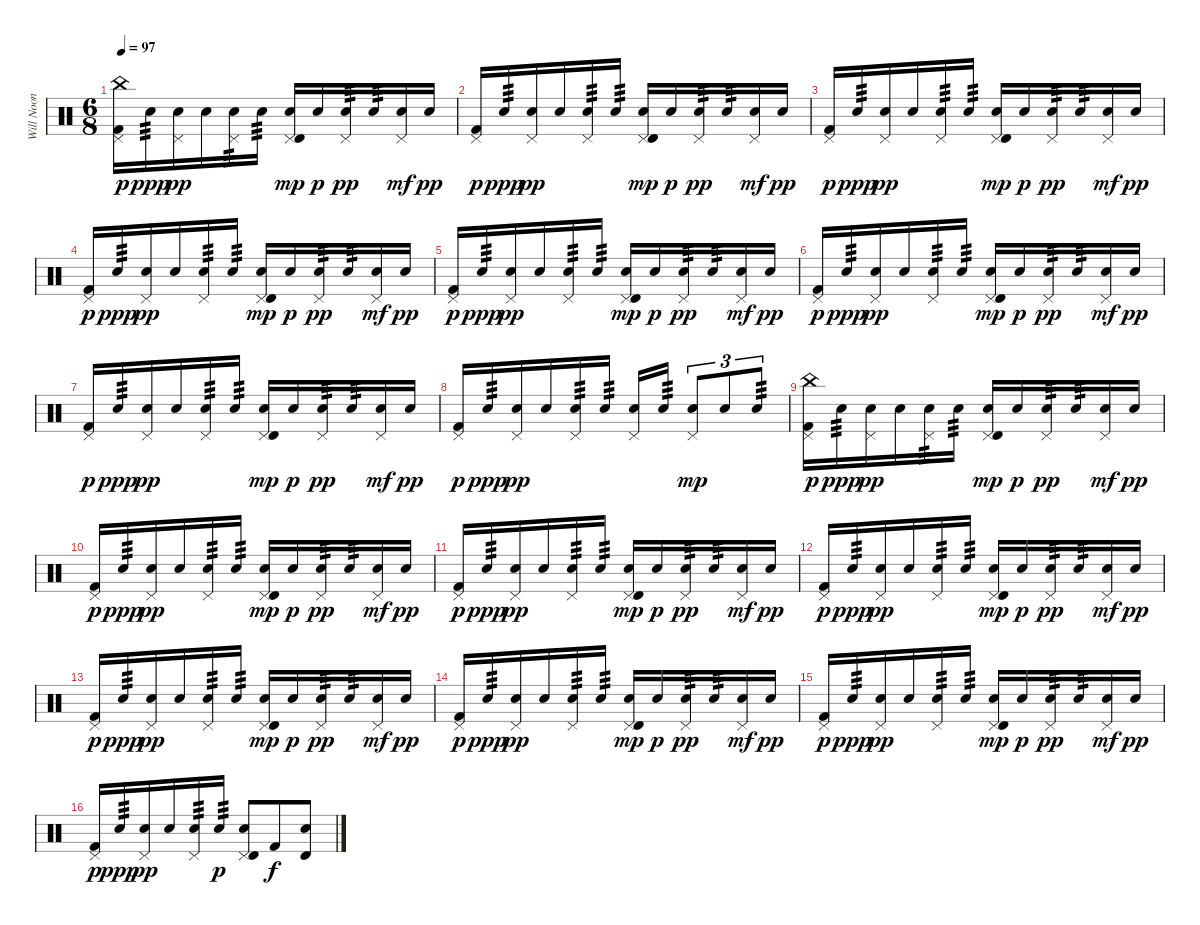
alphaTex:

\track ("Will Noon" "Will Noon") {instrument percussion}
\staff {score}
\articulation defaults
\ts (6 8)
\tempo 97
\clef neutral
\ks c
("China (hit)" "Pedal Hi-Hat (hit)" "Kick (hit) 2").16{dy p} "Electric Snare (hit)".16{tp 3 dy ppp} ("Pedal Hi-Hat (hit)" "Electric Snare (hit)").16{dy pp} "Electric Snare (hit)".16 ("Pedal Hi-Hat (hit)" "Electric Snare (hit)").16{tp 3} "Electric Snare (hit)".16{tp 3} ("Pedal Hi-Hat (hit)" "Timbale high (hit)" "Electric Snare (hit)").16{dy mp} "Electric Snare (hit)".16{dy p} ("Pedal Hi-Hat (hit)" "Electric Snare (hit)").16{tp 3 dy pp} "Electric Snare (hit)".16{tp 3} ("Pedal Hi-Hat (hit)" "Electric Snare (hit)").16{dy mf} "Electric Snare (hit)".16{dy pp} |
("Pedal Hi-Hat (hit)" "Kick (hit) 2").16{dy p} "Electric Snare (hit)".16{tp 3 dy ppp} ("Pedal Hi-Hat (hit)" "Electric Snare (hit)").16{dy pp} "Electric Snare (hit)".16 ("Pedal Hi-Hat (hit)" "Electric Snare (hit)").16{tp 3} "Electric Snare (hit)".16{tp 3} ("Pedal Hi-Hat (hit)" "Timbale high (hit)" "Electric Snare (hit)").16{dy mp} "Electric Snare (hit)".16{dy p} ("Pedal Hi-Hat (hit)" "Electric Snare (hit)").16{tp 3 dy pp} "Electric Snare (hit)".16{tp 3} ("Pedal Hi-Hat (hit)" "Electric Snare (hit)").16{dy mf} "Electric Snare (hit)".16{dy pp} |
("Pedal Hi-Hat (hit)" "Kick (hit) 2").16{dy p} "Electric Snare (hit)".16{tp 3 dy ppp} ("Pedal Hi-Hat (hit)" "Electric Snare (hit)").16{dy pp} "Electric Snare (hit)".16 ("Pedal Hi-Hat (hit)" "Electric Snare (hit)").16{tp 3} "Electric Snare (hit)".16{tp 3} ("Pedal Hi-Hat (hit)" "Timbale high (hit)" "Electric Snare (hit)").16{dy mp} "Electric Snare (hit)".16{dy p} ("Pedal Hi-Hat (hit)" "Electric Snare (hit)").16{tp 3 dy pp} "Electric Snare (hit)".16{tp 3} ("Pedal Hi-Hat (hit)" "Electric Snare (hit)").16{dy mf} "Electric Snare (hit)".16{dy pp} |
("Pedal Hi-Hat (hit)" "Kick (hit) 2").16{dy p} "Electric Snare (hit)".16{tp 3 dy ppp} ("Pedal Hi-Hat (hit)" "Electric Snare (hit)").16{dy pp} "Electric Snare (hit)".16 ("Pedal Hi-Hat (hit)" "Electric Snare (hit)").16{tp 3} "Electric Snare (hit)".16{tp 3} ("Pedal Hi-Hat (hit)" "Timbale high (hit)" "Electric Snare (hit)").16{dy mp} "Electric Snare (hit)".16{dy p} ("Pedal Hi-Hat (hit)" "Electric Snare (hit)").16{tp 3 dy pp} "Electric Snare (hit)".16{tp 3} ("Pedal Hi-Hat (hit)" "Electric Snare (hit)").16{dy mf} "Electric Snare (hit)".16{dy pp} |
("Pedal Hi-Hat (hit)" "Kick (hit) 2").16{dy p} "Electric Snare (hit)".16{tp 3 dy ppp} ("Pedal Hi-Hat (hit)" "Electric Snare (hit)").16{dy pp} "Electric Snare (hit)".16 ("Pedal Hi-Hat (hit)" "Electric Snare (hit)").16{tp 3} "Electric Snare (hit)".16{tp 3} ("Pedal Hi-Hat (hit)" "Timbale high (hit)" "Electric Snare (hit)").16{dy mp} "Electric Snare (hit)".16{dy p} ("Pedal Hi-Hat (hit)" "Electric Snare (hit)").16{tp 3 dy pp} "Electric Snare (hit)".16{tp 3} ("Pedal Hi-Hat (hit)" "Electric Snare (hit)").16{dy mf} "Electric Snare (hit)".16{dy pp} |
("Pedal Hi-Hat (hit)" "Kick (hit) 2").16{dy p} "Electric Snare (hit)".16{tp 3 dy ppp} ("Pedal Hi-Hat (hit)" "Electric Snare (hit)").16{dy pp} "Electric Snare (hit)".16 ("Pedal Hi-Hat (hit)" "Electric Snare (hit)").16{tp 3} "Electric Snare (hit)".16{tp 3} ("Pedal Hi-Hat (hit)" "Timbale high (hit)" "Electric Snare (hit)").16{dy mp} "Electric Snare (hit)".16{dy p} ("Pedal Hi-Hat (hit)" "Electric Snare (hit)").16{tp 3 dy pp} "Electric Snare (hit)".16{tp 3} ("Pedal Hi-Hat (hit)" "Electric Snare (hit)").16{dy mf} "Electric Snare (hit)".16{dy pp} |
("Pedal Hi-Hat (hit)" "Kick (hit) 2").16{dy p} "Electric Snare (hit)".16{tp 3 dy ppp} ("Pedal Hi-Hat (hit)" "Electric Snare (hit)").16{dy pp} "Electric Snare (hit)".16 ("Pedal Hi-Hat (hit)" "Electric Snare (hit)").16{tp 3} "Electric Snare (hit)".16{tp 3} ("Pedal Hi-Hat (hit)" "Timbale high (hit)" "Electric Snare (hit)").16{dy mp} "Electric Snare (hit)".16{dy p} ("Pedal Hi-Hat (hit)" "Electric Snare (hit)").16{tp 3 dy pp} "Electric Snare (hit)".16{tp 3} ("Pedal Hi-Hat (hit)" "Electric Snare (hit)").16{dy mf} "Electric Snare (hit)".16{dy pp} |
("Pedal Hi-Hat (hit)" "Kick (hit) 2").16{dy p} "Electric Snare (hit)".16{tp 3 dy ppp} ("Pedal Hi-Hat (hit)" "Electric Snare (hit)").16{dy pp} "Electric Snare (hit)".16 ("Pedal Hi-Hat (hit)" "Electric Snare (hit)").16{tp 3} "Electric Snare (hit)".16{tp 3} ("Pedal Hi-Hat (hit)" "Electric Snare (hit)").16 "Electric Snare (hit)".16{tp 3} ("Pedal Hi-Hat (hit)" "Electric Snare (hit)").8{tu (3 2) dy mp} "Electric Snare (hit)".8{tu (3 2)} "Electric Snare (hit)".8{tu (3 2) tp 3} |
("China (hit)" "Pedal Hi-Hat (hit)" "Kick (hit) 2").16{dy p} "Electric Snare (hit)".16{tp 3 dy ppp} ("Pedal Hi-Hat (hit)" "Electric Snare (hit)").16{dy pp} "Electric Snare (hit)".16 ("Pedal Hi-Hat (hit)" "Electric Snare (hit)").16{tp 3} "Electric Snare (hit)".16{tp 3} ("Pedal Hi-Hat (hit)" "Timbale high (hit)" "Electric Snare (hit)").16{dy mp} "Electric Snare (hit)".16{dy p} ("Pedal Hi-Hat (hit)" "Electric Snare (hit)").16{tp 3 dy pp} "Electric Snare (hit)".16{tp 3} ("Pedal Hi-Hat (hit)" "Electric Snare (hit)").16{dy mf} "Electric Snare (hit)".16{dy pp} |
("Pedal Hi-Hat (hit)" "Kick (hit) 2").16{dy p} "Electric Snare (hit)".16{tp 3 dy ppp} ("Pedal Hi-Hat (hit)" "Electric Snare (hit)").16{dy pp} "Electric Snare (hit)".16 ("Pedal Hi-Hat (hit)" "Electric Snare (hit)").16{tp 3} "Electric Snare (hit)".16{tp 3} ("Pedal Hi-Hat (hit)" "Timbale high (hit)" "Electric Snare (hit)").16{dy mp} "Electric Snare (hit)".16{dy p} ("Pedal Hi-Hat (hit)" "Electric Snare (hit)").16{tp 3 dy pp} "Electric Snare (hit)".16{tp 3} ("Pedal Hi-Hat (hit)" "Electric Snare (hit)").16{dy mf} "Electric Snare (hit)".16{dy pp} |
("Pedal Hi-Hat (hit)" "Kick (hit) 2").16{dy p} "Electric Snare (hit)".16{tp 3 dy ppp} ("Pedal Hi-Hat (hit)" "Electric Snare (hit)").16{dy pp} "Electric Snare (hit)".16 ("Pedal Hi-Hat (hit)" "Electric Snare (hit)").16{tp 3} "Electric Snare (hit)".16{tp 3} ("Pedal Hi-Hat (hit)" "Timbale high (hit)" "Electric Snare (hit)").16{dy mp} "Electric Snare (hit)".16{dy p} ("Pedal Hi-Hat (hit)" "Electric Snare (hit)").16{tp 3 dy pp} "Electric Snare (hit)".16{tp 3} ("Pedal Hi-Hat (hit)" "Electric Snare (hit)").16{dy mf} "Electric Snare (hit)".16{dy pp} |
("Pedal Hi-Hat (hit)" "Kick (hit) 2").16{dy p} "Electric Snare (hit)".16{tp 3 dy ppp} ("Pedal Hi-Hat (hit)" "Electric Snare (hit)").16{dy pp} "Electric Snare (hit)".16 ("Pedal Hi-Hat (hit)" "Electric Snare (hit)").16{tp 3} "Electric Snare (hit)".16{tp 3} ("Pedal Hi-Hat (hit)" "Timbale high (hit)" "Electric Snare (hit)").16{dy mp} "Electric Snare (hit)".16{dy p} ("Pedal Hi-Hat (hit)" "Electric Snare (hit)").16{tp 3 dy pp} "Electric Snare (hit)".16{tp 3} ("Pedal Hi-Hat (hit)" "Electric Snare (hit)").16{dy mf} "Electric Snare (hit)".16{dy pp} |
("Pedal Hi-Hat (hit)" "Kick (hit) 2").16{dy p} "Electric Snare (hit)".16{tp 3 dy ppp} ("Pedal Hi-Hat (hit)" "Electric Snare (hit)").16{dy pp} "Electric Snare (hit)".16 ("Pedal Hi-Hat (hit)" "Electric Snare (hit)").16{tp 3} "Electric Snare (hit)".16{tp 3} ("Pedal Hi-Hat (hit)" "Timbale high (hit)" "Electric Snare (hit)").16{dy mp} "Electric Snare (hit)".16{dy p} ("Pedal Hi-Hat (hit)" "Electric Snare (hit)").16{tp 3 dy pp} "Electric Snare (hit)".16{tp 3} ("Pedal Hi-Hat (hit)" "Electric Snare (hit)").16{dy mf} "Electric Snare (hit)".16{dy pp} |
("Pedal Hi-Hat (hit)" "Kick (hit) 2").16{dy p} "Electric Snare (hit)".16{tp 3 dy ppp} ("Pedal Hi-Hat (hit)" "Electric Snare (hit)").16{dy pp} "Electric Snare (hit)".16 ("Pedal Hi-Hat (hit)" "Electric Snare (hit)").16{tp 3} "Electric Snare (hit)".16{tp 3} ("Pedal Hi-Hat (hit)" "Timbale high (hit)" "Electric Snare (hit)").16{dy mp} "Electric Snare (hit)".16{dy p} ("Pedal Hi-Hat (hit)" "Electric Snare (hit)").16{tp 3 dy pp} "Electric Snare (hit)".16{tp 3} ("Pedal Hi-Hat (hit)" "Electric Snare (hit)").16{dy mf} "Electric Snare (hit)".16{dy pp} |
("Pedal Hi-Hat (hit)" "Kick (hit) 2").16{dy p} "Electric Snare (hit)".16{tp 3 dy ppp} ("Pedal Hi-Hat (hit)" "Electric Snare (hit)").16{dy pp} "Electric Snare (hit)".16 ("Pedal Hi-Hat (hit)" "Electric Snare (hit)").16{tp 3} "Electric Snare (hit)".16{tp 3} ("Pedal Hi-Hat (hit)" "Timbale high (hit)" "Electric Snare (hit)").16{dy mp} "Electric Snare (hit)".16{dy p} ("Pedal Hi-Hat (hit)" "Electric Snare (hit)").16{tp 3 dy pp} "Electric Snare (hit)".16{tp 3} ("Pedal Hi-Hat (hit)" "Electric Snare (hit)").16{dy mf} "Electric Snare (hit)".16{dy pp} |
("Pedal Hi-Hat (hit)" "Kick (hit) 2").16{dy p} "Electric Snare (hit)".16{tp 3 dy ppp} ("Pedal Hi-Hat (hit)" "Electric Snare (hit)").16{dy pp} "Electric Snare (hit)".16 ("Pedal Hi-Hat (hit)" "Electric Snare (hit)").16{tp 3} "Electric Snare (hit)".16{tp 3 dy p} ("Pedal Hi-Hat (hit)" "Timbale high (hit)" "Electric Snare (hit)").8 "Kick (hit) 2".8{dy f} ("Timbale high (hit)" "Electric Snare (hit)").8
